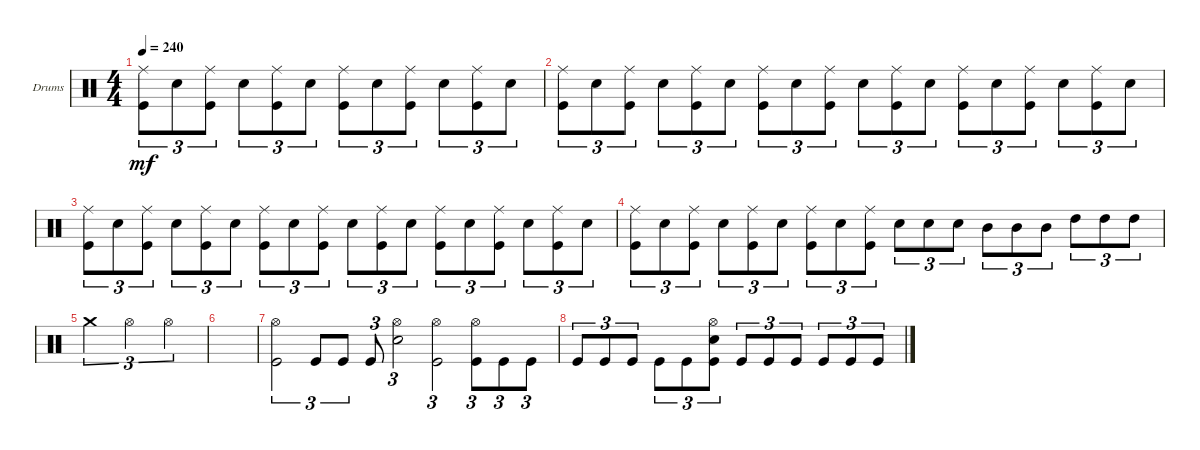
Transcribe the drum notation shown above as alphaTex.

\defaultSystemsLayout 4
\bracketExtendMode groupsimilarinstruments
\firstSystemTrackNameOrientation horizontal
\otherSystemsTrackNameOrientation horizontal
\track ("Drumkit" "Drums") {mute instrument percussion}
\staff {score}
\articulation defaults
\ts (4 4)
\tempo 240
\clef neutral
\scale
0.474178
\ks c
("Ride (middle)" "Kick (hit)").8{tu (3 2) dy mf} "Snare (hit) 2".8{tu (3 2)} ("Ride (middle)" "Kick (hit)").8{tu (3 2)} "Snare (hit) 2".8{tu (3 2)} ("Ride (middle)" "Kick (hit)").8{tu (3 2)} "Snare (hit) 2".8{tu (3 2)} ("Ride (middle)" "Kick (hit)").8{tu (3 2)} "Snare (hit) 2".8{tu (3 2)} ("Ride (middle)" "Kick (hit)").8{tu (3 2)} "Snare (hit) 2".8{tu (3 2)} ("Ride (middle)" "Kick (hit)").8{tu (3 2)} "Snare (hit) 2".8{tu (3 2)} |
\scale
0.262911 ("Ride (middle)" "Kick (hit)").8{tu (3 2)} "Snare (hit) 2".8{tu (3 2)} ("Ride (middle)" "Kick (hit)").8{tu (3 2)} "Snare (hit) 2".8{tu (3 2)} ("Ride (middle)" "Kick (hit)").8{tu (3 2)} "Snare (hit) 2".8{tu (3 2)} ("Ride (middle)" "Kick (hit)").8{tu (3 2)} "Snare (hit) 2".8{tu (3 2)} ("Ride (middle)" "Kick (hit)").8{tu (3 2)} "Snare (hit) 2".8{tu (3 2)} ("Ride (middle)" "Kick (hit)").8{tu (3 2)} "Snare (hit) 2".8{tu (3 2)} ("Ride (middle)" "Kick (hit)").8{tu (3 2)} "Snare (hit) 2".8{tu (3 2)} ("Ride (middle)" "Kick (hit)").8{tu (3 2)} "Snare (hit) 2".8{tu (3 2)} ("Ride (middle)" "Kick (hit)").8{tu (3 2)} "Snare (hit) 2".8{tu (3 2)} |
\scale
0.262911 ("Ride (middle)" "Kick (hit)").8{tu (3 2)} "Snare (hit) 2".8{tu (3 2)} ("Ride (middle)" "Kick (hit)").8{tu (3 2)} "Snare (hit) 2".8{tu (3 2)} ("Ride (middle)" "Kick (hit)").8{tu (3 2)} "Snare (hit) 2".8{tu (3 2)} ("Ride (middle)" "Kick (hit)").8{tu (3 2)} "Snare (hit) 2".8{tu (3 2)} ("Ride (middle)" "Kick (hit)").8{tu (3 2)} "Snare (hit) 2".8{tu (3 2)} ("Ride (middle)" "Kick (hit)").8{tu (3 2)} "Snare (hit) 2".8{tu (3 2)} ("Ride (middle)" "Kick (hit)").8{tu (3 2)} "Snare (hit) 2".8{tu (3 2)} ("Ride (middle)" "Kick (hit)").8{tu (3 2)} "Snare (hit) 2".8{tu (3 2)} ("Ride (middle)" "Kick (hit)").8{tu (3 2)} "Snare (hit) 2".8{tu (3 2)} |
\scale
0.262911 ("Ride (middle)" "Kick (hit)").8{tu (3 2)} "Snare (hit) 2".8{tu (3 2)} ("Ride (middle)" "Kick (hit)").8{tu (3 2)} "Snare (hit) 2".8{tu (3 2)} ("Ride (middle)" "Kick (hit)").8{tu (3 2)} "Snare (hit) 2".8{tu (3 2)} ("Ride (middle)" "Kick (hit)").8{tu (3 2)} "Snare (hit) 2".8{tu (3 2)} ("Ride (middle)" "Kick (hit)").8{tu (3 2)} "Snare (hit) 2".8{tu (3 2)} "Snare (hit) 2".8{tu (3 2)} "Snare (hit) 2".8{tu (3 2)} "Mid Tom (hit)".8{tu (3 2)} "Mid Tom (hit)".8{tu (3 2)} "Mid Tom (hit)".8{tu (3 2)} "High Tom (hit)".8{tu (3 2)} "High Tom (hit)".8{tu (3 2)} "High Tom (hit)".8{tu (3 2)} |
\scale
0.474178 "Crash medium (hit)".2{tu (3 2)} "Hi-Hat (open)".2{tu (3 2)} "Hi-Hat (open)".2{tu (3 2)} |
|
("Hi-Hat (open)" "Kick (hit)").2{tu (3 2)} "Kick (hit)".8{tu (3 2)} "Kick (hit)".8{tu (3 2)} "Kick (hit)".8{tu (3 2)} ("Hi-Hat (open)" "Snare (hit) 2").2{tu (3 2)} ("Kick (hit)" "Hi-Hat (open)").2{tu (3 2)} ("Kick (hit)" "Hi-Hat (open)").8{tu (3 2)} "Kick (hit)".8{tu (3 2)} "Kick (hit)".8{tu (3 2)} |
"Kick (hit)".8{tu (3 2)} "Kick (hit)".8{tu (3 2)} "Kick (hit)".8{tu (3 2)} "Kick (hit)".8{tu (3 2)} "Kick (hit)".8{tu (3 2)} ("Kick (hit)" "Snare (hit) 2" "Hi-Hat (open)").8{tu (3 2)} "Kick (hit)".8{tu (3 2)} "Kick (hit)".8{tu (3 2)} "Kick (hit)".8{tu (3 2)} "Kick (hit)".8{tu (3 2)} "Kick (hit)".8{tu (3 2)} "Kick (hit)".8{tu (3 2)}
